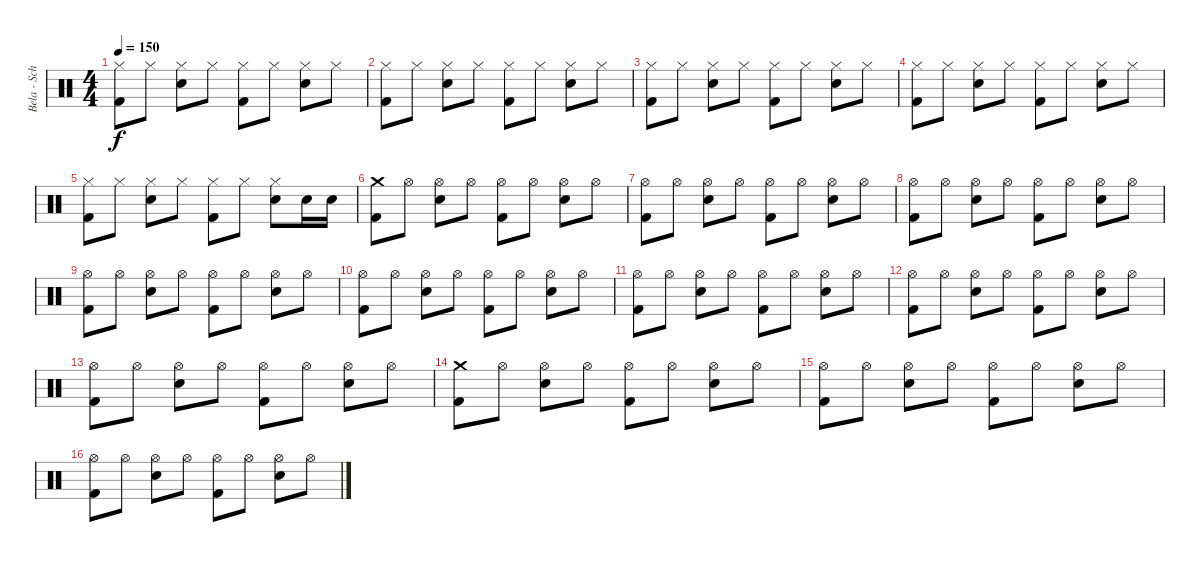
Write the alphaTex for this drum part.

\track ("Bela - Schlagzeug" "Bela - Sch") {instrument percussion}
\staff {score}
\articulation defaults
\ts (4 4)
\tempo 150
\clef neutral
\ks c
("Hi-Hat (closed)" "Kick (hit) 2").8{dy f} "Hi-Hat (closed)".8 ("Hi-Hat (closed)" "Snare (hit) 2").8 "Hi-Hat (closed)".8 ("Hi-Hat (closed)" "Kick (hit) 2").8 "Hi-Hat (closed)".8 ("Hi-Hat (closed)" "Snare (hit) 2").8 "Hi-Hat (closed)".8 |
("Hi-Hat (closed)" "Kick (hit) 2").8 "Hi-Hat (closed)".8 ("Hi-Hat (closed)" "Snare (hit) 2").8 "Hi-Hat (closed)".8 ("Hi-Hat (closed)" "Kick (hit) 2").8 "Hi-Hat (closed)".8 ("Hi-Hat (closed)" "Snare (hit) 2").8 "Hi-Hat (closed)".8 |
("Hi-Hat (closed)" "Kick (hit) 2").8 "Hi-Hat (closed)".8 ("Hi-Hat (closed)" "Snare (hit) 2").8 "Hi-Hat (closed)".8 ("Hi-Hat (closed)" "Kick (hit) 2").8 "Hi-Hat (closed)".8 ("Hi-Hat (closed)" "Snare (hit) 2").8 "Hi-Hat (closed)".8 |
("Hi-Hat (closed)" "Kick (hit) 2").8 "Hi-Hat (closed)".8 ("Hi-Hat (closed)" "Snare (hit) 2").8 "Hi-Hat (closed)".8 ("Hi-Hat (closed)" "Kick (hit) 2").8 "Hi-Hat (closed)".8 ("Hi-Hat (closed)" "Snare (hit) 2").8 "Hi-Hat (closed)".8 |
("Hi-Hat (closed)" "Kick (hit) 2").8 "Hi-Hat (closed)".8 ("Hi-Hat (closed)" "Snare (hit) 2").8 "Hi-Hat (closed)".8 ("Hi-Hat (closed)" "Kick (hit) 2").8 "Hi-Hat (closed)".8 ("Hi-Hat (closed)" "Snare (hit) 2").8 "Snare (hit) 2".16 "Snare (hit) 2".16 |
("Crash medium (hit)" "Kick (hit) 2").8 "Hi-Hat (open)".8 ("Hi-Hat (open)" "Snare (hit) 2").8 "Hi-Hat (open)".8 ("Hi-Hat (open)" "Kick (hit) 2").8 "Hi-Hat (open)".8 ("Hi-Hat (open)" "Snare (hit) 2").8 "Hi-Hat (open)".8 |
("Hi-Hat (open)" "Kick (hit) 2").8 "Hi-Hat (open)".8 ("Hi-Hat (open)" "Snare (hit) 2").8 "Hi-Hat (open)".8 ("Hi-Hat (open)" "Kick (hit) 2").8 "Hi-Hat (open)".8 ("Hi-Hat (open)" "Snare (hit) 2").8 "Hi-Hat (open)".8 |
("Hi-Hat (open)" "Kick (hit) 2").8 "Hi-Hat (open)".8 ("Hi-Hat (open)" "Snare (hit) 2").8 "Hi-Hat (open)".8 ("Hi-Hat (open)" "Kick (hit) 2").8 "Hi-Hat (open)".8 ("Hi-Hat (open)" "Snare (hit) 2").8 "Hi-Hat (open)".8 |
("Hi-Hat (open)" "Kick (hit) 2").8 "Hi-Hat (open)".8 ("Hi-Hat (open)" "Snare (hit) 2").8 "Hi-Hat (open)".8 ("Hi-Hat (open)" "Kick (hit) 2").8 "Hi-Hat (open)".8 ("Hi-Hat (open)" "Snare (hit) 2").8 "Hi-Hat (open)".8 |
("Hi-Hat (open)" "Kick (hit) 2").8 "Hi-Hat (open)".8 ("Hi-Hat (open)" "Snare (hit) 2").8 "Hi-Hat (open)".8 ("Hi-Hat (open)" "Kick (hit) 2").8 "Hi-Hat (open)".8 ("Hi-Hat (open)" "Snare (hit) 2").8 "Hi-Hat (open)".8 |
("Hi-Hat (open)" "Kick (hit) 2").8 "Hi-Hat (open)".8 ("Hi-Hat (open)" "Snare (hit) 2").8 "Hi-Hat (open)".8 ("Hi-Hat (open)" "Kick (hit) 2").8 "Hi-Hat (open)".8 ("Hi-Hat (open)" "Snare (hit) 2").8 "Hi-Hat (open)".8 |
("Hi-Hat (open)" "Kick (hit) 2").8 "Hi-Hat (open)".8 ("Hi-Hat (open)" "Snare (hit) 2").8 "Hi-Hat (open)".8 ("Hi-Hat (open)" "Kick (hit) 2").8 "Hi-Hat (open)".8 ("Hi-Hat (open)" "Snare (hit) 2").8 "Hi-Hat (open)".8 |
("Hi-Hat (open)" "Kick (hit) 2").8 "Hi-Hat (open)".8 ("Hi-Hat (open)" "Snare (hit) 2").8 "Hi-Hat (open)".8 ("Hi-Hat (open)" "Kick (hit) 2").8 "Hi-Hat (open)".8 ("Hi-Hat (open)" "Snare (hit) 2").8 "Hi-Hat (open)".8 |
("Crash medium (hit)" "Kick (hit) 2").8 "Hi-Hat (open)".8 ("Hi-Hat (open)" "Snare (hit) 2").8 "Hi-Hat (open)".8 ("Hi-Hat (open)" "Kick (hit) 2").8 "Hi-Hat (open)".8 ("Hi-Hat (open)" "Snare (hit) 2").8 "Hi-Hat (open)".8 |
("Hi-Hat (open)" "Kick (hit) 2").8 "Hi-Hat (open)".8 ("Hi-Hat (open)" "Snare (hit) 2").8 "Hi-Hat (open)".8 ("Hi-Hat (open)" "Kick (hit) 2").8 "Hi-Hat (open)".8 ("Hi-Hat (open)" "Snare (hit) 2").8 "Hi-Hat (open)".8 |
("Hi-Hat (open)" "Kick (hit) 2").8 "Hi-Hat (open)".8 ("Hi-Hat (open)" "Snare (hit) 2").8 "Hi-Hat (open)".8 ("Hi-Hat (open)" "Kick (hit) 2").8 "Hi-Hat (open)".8 ("Hi-Hat (open)" "Snare (hit) 2").8 "Hi-Hat (open)".8
